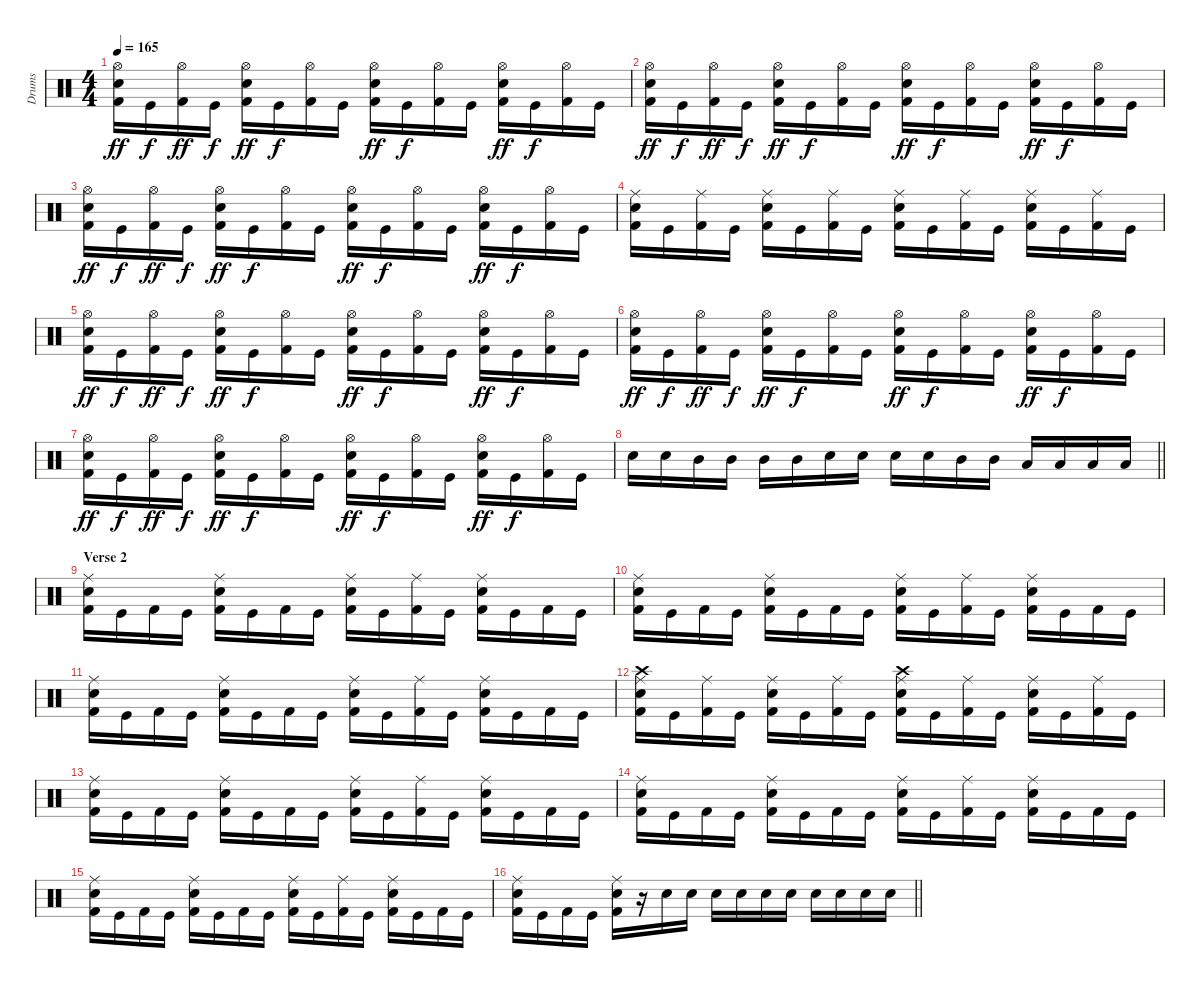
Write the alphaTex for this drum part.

\track ("Drums" "Drums") {instrument percussion}
\staff {score}
\articulation defaults
\ts (4 4)
\tempo 165
\clef neutral
\ks c
("Hi-Hat (open)" "Snare (hit) 2" "Kick (hit) 2").16{dy ff} "Kick (hit)".16{dy f} ("Hi-Hat (open)" "Kick (hit) 2").16{dy ff} "Kick (hit)".16{dy f} ("Hi-Hat (open)" "Snare (hit) 2" "Kick (hit) 2").16{dy ff} "Kick (hit)".16{dy f} ("Hi-Hat (open)" "Kick (hit) 2").16 "Kick (hit)".16 ("Hi-Hat (open)" "Snare (hit) 2" "Kick (hit) 2").16{dy ff} "Kick (hit)".16{dy f} ("Hi-Hat (open)" "Kick (hit) 2").16 "Kick (hit)".16 ("Hi-Hat (open)" "Snare (hit) 2" "Kick (hit) 2").16{dy ff} "Kick (hit)".16{dy f} ("Hi-Hat (open)" "Kick (hit) 2").16 "Kick (hit)".16 |
("Hi-Hat (open)" "Snare (hit) 2" "Kick (hit) 2").16{dy ff} "Kick (hit)".16{dy f} ("Hi-Hat (open)" "Kick (hit) 2").16{dy ff} "Kick (hit)".16{dy f} ("Hi-Hat (open)" "Snare (hit) 2" "Kick (hit) 2").16{dy ff} "Kick (hit)".16{dy f} ("Hi-Hat (open)" "Kick (hit) 2").16 "Kick (hit)".16 ("Hi-Hat (open)" "Snare (hit) 2" "Kick (hit) 2").16{dy ff} "Kick (hit)".16{dy f} ("Hi-Hat (open)" "Kick (hit) 2").16 "Kick (hit)".16 ("Hi-Hat (open)" "Snare (hit) 2" "Kick (hit) 2").16{dy ff} "Kick (hit)".16{dy f} ("Hi-Hat (open)" "Kick (hit) 2").16 "Kick (hit)".16 |
("Hi-Hat (open)" "Snare (hit) 2" "Kick (hit) 2").16{dy ff} "Kick (hit)".16{dy f} ("Hi-Hat (open)" "Kick (hit) 2").16{dy ff} "Kick (hit)".16{dy f} ("Hi-Hat (open)" "Snare (hit) 2" "Kick (hit) 2").16{dy ff} "Kick (hit)".16{dy f} ("Hi-Hat (open)" "Kick (hit) 2").16 "Kick (hit)".16 ("Hi-Hat (open)" "Snare (hit) 2" "Kick (hit) 2").16{dy ff} "Kick (hit)".16{dy f} ("Hi-Hat (open)" "Kick (hit) 2").16 "Kick (hit)".16 ("Hi-Hat (open)" "Snare (hit) 2" "Kick (hit) 2").16{dy ff} "Kick (hit)".16{dy f} ("Hi-Hat (open)" "Kick (hit) 2").16 "Kick (hit)".16 |
("Snare (hit) 2" "Ride (middle)" "Kick (hit) 2").16 "Kick (hit)".16 ("Ride (middle)" "Kick (hit) 2").16 "Kick (hit)".16 ("Snare (hit) 2" "Ride (middle)" "Kick (hit) 2").16 "Kick (hit)".16 ("Ride (middle)" "Kick (hit) 2").16 "Kick (hit)".16 ("Snare (hit) 2" "Ride (middle)" "Kick (hit) 2").16 "Kick (hit)".16 ("Ride (middle)" "Kick (hit) 2").16 "Kick (hit)".16 ("Snare (hit) 2" "Ride (middle)" "Kick (hit) 2").16 "Kick (hit)".16 ("Ride (middle)" "Kick (hit) 2").16 "Kick (hit)".16 |
("Hi-Hat (open)" "Snare (hit) 2" "Kick (hit) 2").16{dy ff} "Kick (hit)".16{dy f} ("Hi-Hat (open)" "Kick (hit) 2").16{dy ff} "Kick (hit)".16{dy f} ("Hi-Hat (open)" "Snare (hit) 2" "Kick (hit) 2").16{dy ff} "Kick (hit)".16{dy f} ("Hi-Hat (open)" "Kick (hit) 2").16 "Kick (hit)".16 ("Hi-Hat (open)" "Snare (hit) 2" "Kick (hit) 2").16{dy ff} "Kick (hit)".16{dy f} ("Hi-Hat (open)" "Kick (hit) 2").16 "Kick (hit)".16 ("Hi-Hat (open)" "Snare (hit) 2" "Kick (hit) 2").16{dy ff} "Kick (hit)".16{dy f} ("Hi-Hat (open)" "Kick (hit) 2").16 "Kick (hit)".16 |
("Hi-Hat (open)" "Snare (hit) 2" "Kick (hit) 2").16{dy ff} "Kick (hit)".16{dy f} ("Hi-Hat (open)" "Kick (hit) 2").16{dy ff} "Kick (hit)".16{dy f} ("Hi-Hat (open)" "Snare (hit) 2" "Kick (hit) 2").16{dy ff} "Kick (hit)".16{dy f} ("Hi-Hat (open)" "Kick (hit) 2").16 "Kick (hit)".16 ("Hi-Hat (open)" "Snare (hit) 2" "Kick (hit) 2").16{dy ff} "Kick (hit)".16{dy f} ("Hi-Hat (open)" "Kick (hit) 2").16 "Kick (hit)".16 ("Hi-Hat (open)" "Snare (hit) 2" "Kick (hit) 2").16{dy ff} "Kick (hit)".16{dy f} ("Hi-Hat (open)" "Kick (hit) 2").16 "Kick (hit)".16 |
("Hi-Hat (open)" "Snare (hit) 2" "Kick (hit) 2").16{dy ff} "Kick (hit)".16{dy f} ("Hi-Hat (open)" "Kick (hit) 2").16{dy ff} "Kick (hit)".16{dy f} ("Hi-Hat (open)" "Snare (hit) 2" "Kick (hit) 2").16{dy ff} "Kick (hit)".16{dy f} ("Hi-Hat (open)" "Kick (hit) 2").16 "Kick (hit)".16 ("Hi-Hat (open)" "Snare (hit) 2" "Kick (hit) 2").16{dy ff} "Kick (hit)".16{dy f} ("Hi-Hat (open)" "Kick (hit) 2").16 "Kick (hit)".16 ("Hi-Hat (open)" "Snare (hit) 2" "Kick (hit) 2").16{dy ff} "Kick (hit)".16{dy f} ("Hi-Hat (open)" "Kick (hit) 2").16 "Kick (hit)".16 |
\barLineRight lightlight "Snare (hit) 2".16 "Snare (hit) 2".16 "Mid Tom (hit)".16 "Mid Tom (hit)".16 "Mid Tom (hit)".16 "Mid Tom (hit)".16 "Snare (hit) 2".16 "Snare (hit) 2".16 "Snare (hit) 2".16 "Snare (hit) 2".16 "Mid Tom (hit)".16 "Mid Tom (hit)".16 "Low Tom (hit)".16 "Low Tom (hit)".16 "Low Tom (hit)".16 "Low Tom (hit)".16
|
\section ("" "Verse 2")
("Snare (hit) 2" "Ride (middle)" "Kick (hit) 2").16 "Kick (hit)".16 "Kick (hit) 2".16 "Kick (hit)".16 ("Snare (hit) 2" "Ride (middle)" "Kick (hit) 2").16 "Kick (hit)".16 "Kick (hit) 2".16 "Kick (hit)".16 ("Snare (hit) 2" "Ride (middle)" "Kick (hit) 2").16 "Kick (hit)".16 ("Ride (middle)" "Kick (hit) 2").16 "Kick (hit)".16 ("Snare (hit) 2" "Ride (middle)" "Kick (hit) 2").16 "Kick (hit)".16 "Kick (hit) 2".16 "Kick (hit)".16 |
("Snare (hit) 2" "Ride (middle)" "Kick (hit) 2").16 "Kick (hit)".16 "Kick (hit) 2".16 "Kick (hit)".16 ("Snare (hit) 2" "Ride (middle)" "Kick (hit) 2").16 "Kick (hit)".16 "Kick (hit) 2".16 "Kick (hit)".16 ("Snare (hit) 2" "Ride (middle)" "Kick (hit) 2").16 "Kick (hit)".16 ("Ride (middle)" "Kick (hit) 2").16 "Kick (hit)".16 ("Snare (hit) 2" "Ride (middle)" "Kick (hit) 2").16 "Kick (hit)".16 "Kick (hit) 2".16 "Kick (hit)".16 |
("Snare (hit) 2" "Ride (middle)" "Kick (hit) 2").16 "Kick (hit)".16 "Kick (hit) 2".16 "Kick (hit)".16 ("Snare (hit) 2" "Ride (middle)" "Kick (hit) 2").16 "Kick (hit)".16 "Kick (hit) 2".16 "Kick (hit)".16 ("Snare (hit) 2" "Ride (middle)" "Kick (hit) 2").16 "Kick (hit)".16 ("Ride (middle)" "Kick (hit) 2").16 "Kick (hit)".16 ("Snare (hit) 2" "Ride (middle)" "Kick (hit) 2").16 "Kick (hit)".16 "Kick (hit) 2".16 "Kick (hit)".16 |
("Crash high (hit)" "Snare (hit) 2" "Ride (middle)" "Kick (hit) 2").16 "Kick (hit)".16 ("Ride (middle)" "Kick (hit) 2").16 "Kick (hit)".16 ("Snare (hit) 2" "Ride (middle)" "Kick (hit) 2").16 "Kick (hit)".16 ("Ride (middle)" "Kick (hit) 2").16 "Kick (hit)".16 ("Crash high (hit)" "Snare (hit) 2" "Ride (middle)" "Kick (hit) 2").16 "Kick (hit)".16 ("Ride (middle)" "Kick (hit) 2").16 "Kick (hit)".16 ("Snare (hit) 2" "Ride (middle)" "Kick (hit) 2").16 "Kick (hit)".16 ("Ride (middle)" "Kick (hit) 2").16 "Kick (hit)".16 |
("Snare (hit) 2" "Ride (middle)" "Kick (hit) 2").16 "Kick (hit)".16 "Kick (hit) 2".16 "Kick (hit)".16 ("Snare (hit) 2" "Ride (middle)" "Kick (hit) 2").16 "Kick (hit)".16 "Kick (hit) 2".16 "Kick (hit)".16 ("Snare (hit) 2" "Ride (middle)" "Kick (hit) 2").16 "Kick (hit)".16 ("Ride (middle)" "Kick (hit) 2").16 "Kick (hit)".16 ("Snare (hit) 2" "Ride (middle)" "Kick (hit) 2").16 "Kick (hit)".16 "Kick (hit) 2".16 "Kick (hit)".16 |
("Snare (hit) 2" "Ride (middle)" "Kick (hit) 2").16 "Kick (hit)".16 "Kick (hit) 2".16 "Kick (hit)".16 ("Snare (hit) 2" "Ride (middle)" "Kick (hit) 2").16 "Kick (hit)".16 "Kick (hit) 2".16 "Kick (hit)".16 ("Snare (hit) 2" "Ride (middle)" "Kick (hit) 2").16 "Kick (hit)".16 ("Ride (middle)" "Kick (hit) 2").16 "Kick (hit)".16 ("Snare (hit) 2" "Ride (middle)" "Kick (hit) 2").16 "Kick (hit)".16 "Kick (hit) 2".16 "Kick (hit)".16 |
("Snare (hit) 2" "Ride (middle)" "Kick (hit) 2").16 "Kick (hit)".16 "Kick (hit) 2".16 "Kick (hit)".16 ("Snare (hit) 2" "Ride (middle)" "Kick (hit) 2").16 "Kick (hit)".16 "Kick (hit) 2".16 "Kick (hit)".16 ("Snare (hit) 2" "Ride (middle)" "Kick (hit) 2").16 "Kick (hit)".16 ("Ride (middle)" "Kick (hit) 2").16 "Kick (hit)".16 ("Snare (hit) 2" "Ride (middle)" "Kick (hit) 2").16 "Kick (hit)".16 "Kick (hit) 2".16 "Kick (hit)".16 |
\barLineRight lightlight
("Snare (hit) 2" "Ride (middle)" "Kick (hit) 2").16 "Kick (hit)".16 "Kick (hit) 2".16 "Kick (hit)".16 ("Snare (hit) 2" "Ride (middle)" "Kick (hit) 2").16 r.16 "Snare (hit) 2".16 "Snare (hit) 2".16 "Snare (hit) 2".16 "Snare (hit) 2".16 "Snare (hit) 2".16 "Snare (hit) 2".16 "Snare (hit) 2".16 "Snare (hit) 2".16 "Snare (hit) 2".16 "Snare (hit) 2".16
